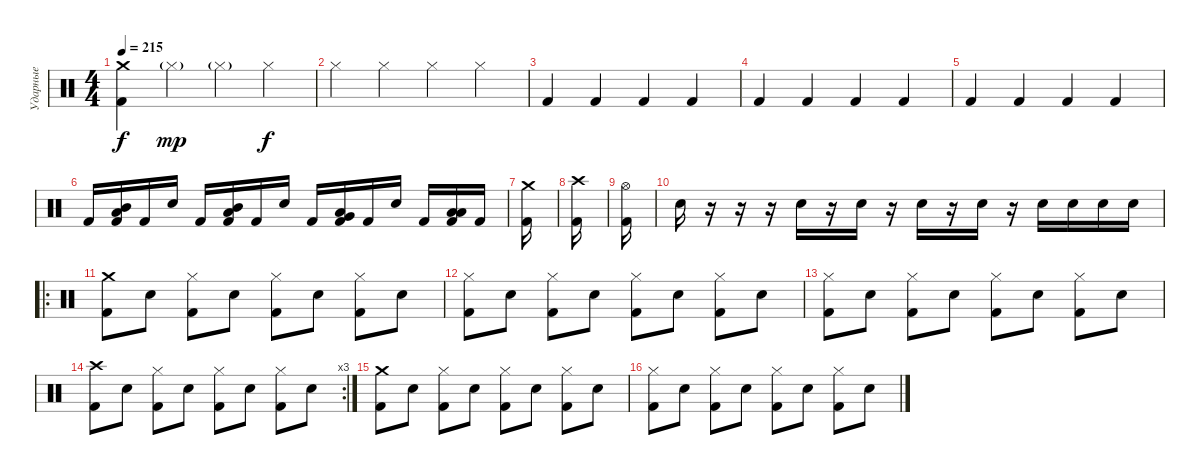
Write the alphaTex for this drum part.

\track ("Ударные" "Ударные") {instrument percussion}
\staff {score}
\articulation defaults
\ts (4 4)
\tempo 215
\clef neutral
\ks c
("Crash medium (hit)" "Kick (hit) 2").4{dy f} "Hi-Hat (closed)"{g}.4{dy mp} "Hi-Hat (closed)"{g}.4 "Hi-Hat (closed)".4{dy f} |
"Hi-Hat (closed)".4 "Hi-Hat (closed)".4 "Hi-Hat (closed)".4 "Hi-Hat (closed)".4 |
"Kick (hit) 2".4 "Kick (hit) 2".4 "Kick (hit) 2".4 "Kick (hit) 2".4 |
"Kick (hit) 2".4 "Kick (hit) 2".4 "Kick (hit) 2".4 "Kick (hit) 2".4 |
"Kick (hit) 2".4 "Kick (hit) 2".4 "Kick (hit) 2".4 "Kick (hit) 2".4 |
"Kick (hit) 2".16 ("Low Tom (hit)" "Mid Tom (hit)" "Kick (hit) 2").16 "Kick (hit) 2".16 "Snare (hit)".16 "Kick (hit) 2".16 ("Low Tom (hit)" "Mid Tom (hit)" "Kick (hit) 2").16 "Kick (hit) 2".16 "Snare (hit)".16 "Kick (hit) 2".16 ("Low Floor Tom (hit)" "Very Low Tom (hit)" "Kick (hit) 2").16 "Kick (hit) 2".16 "Snare (hit)".16 "Kick (hit) 2".16 ("Low Floor Tom (hit)" "Low Floor Tom (hit)" "Kick (hit) 2").16 "Kick (hit) 2".16 |
("Crash medium (hit)" "Kick (hit) 2").16 |
("Crash high (hit)" "Kick (hit) 2").16 |
("Hi-Hat (open)" "Kick (hit) 2").16 |
"Snare (hit) 2".16 r.16 r.16 r.16 "Snare (hit) 2".16 r.16 "Snare (hit) 2".16 r.16 "Snare (hit) 2".16 r.16 "Snare (hit) 2".16 r.16 "Snare (hit) 2".16 "Snare (hit) 2".16 "Snare (hit) 2".16 "Snare (hit) 2".16 |
\ro
("Crash medium (hit)" "Kick (hit) 2").8 "Snare (hit) 2".8 ("Hi-Hat (closed)" "Kick (hit) 2").8 "Snare (hit) 2".8 ("Hi-Hat (closed)" "Kick (hit) 2").8 "Snare (hit) 2".8 ("Hi-Hat (closed)" "Kick (hit) 2").8 "Snare (hit) 2".8 |
("Hi-Hat (closed)" "Kick (hit) 2").8 "Snare (hit) 2".8 ("Hi-Hat (closed)" "Kick (hit) 2").8 "Snare (hit) 2".8 ("Hi-Hat (closed)" "Kick (hit) 2").8 "Snare (hit) 2".8 ("Hi-Hat (closed)" "Kick (hit) 2").8 "Snare (hit) 2".8 |
("Hi-Hat (closed)" "Kick (hit) 2").8 "Snare (hit) 2".8 ("Hi-Hat (closed)" "Kick (hit) 2").8 "Snare (hit) 2".8 ("Hi-Hat (closed)" "Kick (hit) 2").8 "Snare (hit) 2".8 ("Hi-Hat (closed)" "Kick (hit) 2").8 "Snare (hit) 2".8 |
\rc 3
("Crash high (hit)" "Kick (hit) 2").8 "Snare (hit) 2".8 ("Hi-Hat (closed)" "Kick (hit) 2").8 "Snare (hit) 2".8 ("Hi-Hat (closed)" "Kick (hit) 2").8 "Snare (hit) 2".8 ("Hi-Hat (closed)" "Kick (hit) 2").8 "Snare (hit) 2".8 |
("Crash medium (hit)" "Kick (hit) 2").8 "Snare (hit) 2".8 ("Hi-Hat (closed)" "Kick (hit) 2").8 "Snare (hit) 2".8 ("Hi-Hat (closed)" "Kick (hit) 2").8 "Snare (hit) 2".8 ("Hi-Hat (closed)" "Kick (hit) 2").8 "Snare (hit) 2".8 |
("Hi-Hat (closed)" "Kick (hit) 2").8 "Snare (hit) 2".8 ("Hi-Hat (closed)" "Kick (hit) 2").8 "Snare (hit) 2".8 ("Hi-Hat (closed)" "Kick (hit) 2").8 "Snare (hit) 2".8 ("Hi-Hat (closed)" "Kick (hit) 2").8 "Snare (hit) 2".8
